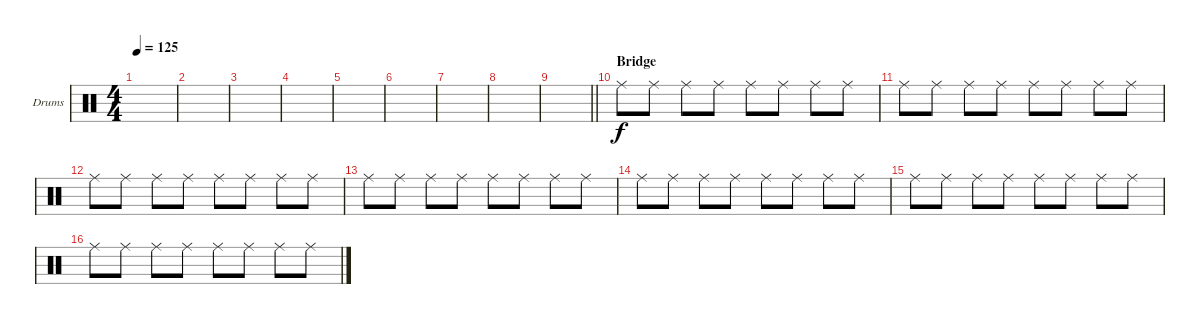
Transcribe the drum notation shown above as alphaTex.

\bracketExtendMode groupsimilarinstruments
\firstSystemTrackNameOrientation horizontal
\otherSystemsTrackNameOrientation horizontal
\track ("Drumkit" "Drums") {instrument percussion}
\staff {score}
\articulation defaults
\ts (4 4)
\tempo 125
\clef neutral
\ks c
|
|
|
|
|
|
|
|
\barLineRight lightlight
|
\section ("" "Bridge")
"Ride (middle)".8 "Ride (middle)".8 "Ride (middle)".8 "Ride (middle)".8 "Ride (middle)".8 "Ride (middle)".8 "Ride (middle)".8 "Ride (middle)".8 |
"Ride (middle)".8 "Ride (middle)".8 "Ride (middle)".8 "Ride (middle)".8 "Ride (middle)".8 "Ride (middle)".8 "Ride (middle)".8 "Ride (middle)".8 |
"Ride (middle)".8 "Ride (middle)".8 "Ride (middle)".8 "Ride (middle)".8 "Ride (middle)".8 "Ride (middle)".8 "Ride (middle)".8 "Ride (middle)".8 |
"Ride (middle)".8 "Ride (middle)".8 "Ride (middle)".8 "Ride (middle)".8 "Ride (middle)".8 "Ride (middle)".8 "Ride (middle)".8 "Ride (middle)".8 |
"Ride (middle)".8 "Ride (middle)".8 "Ride (middle)".8 "Ride (middle)".8 "Ride (middle)".8 "Ride (middle)".8 "Ride (middle)".8 "Ride (middle)".8 |
"Ride (middle)".8 "Ride (middle)".8 "Ride (middle)".8 "Ride (middle)".8 "Ride (middle)".8 "Ride (middle)".8 "Ride (middle)".8 "Ride (middle)".8 |
"Ride (middle)".8 "Ride (middle)".8 "Ride (middle)".8 "Ride (middle)".8 "Ride (middle)".8 "Ride (middle)".8 "Ride (middle)".8 "Ride (middle)".8
